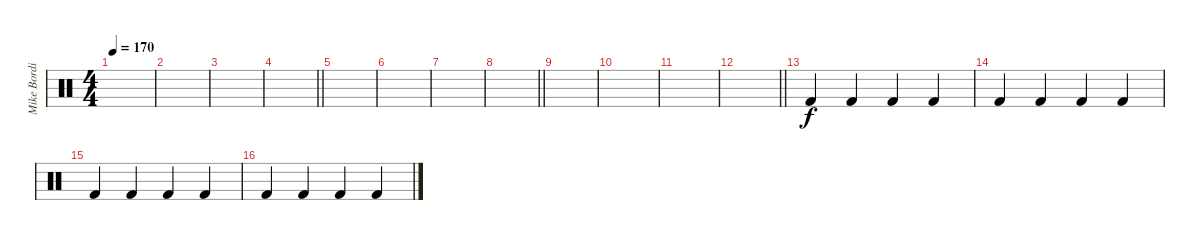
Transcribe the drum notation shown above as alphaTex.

\track ("Mike Bordin Backing" "Mike Bordi") {instrument percussion}
\staff {score}
\articulation defaults
\ts (4 4)
\tempo 170
\clef neutral
\ks c
|
|
|
\barLineRight lightlight
|
|
|
|
\barLineRight lightlight
|
|
|
|
\barLineRight lightlight
|
"Kick (hit) 2".4 "Kick (hit) 2".4 "Kick (hit) 2".4 "Kick (hit) 2".4 |
"Kick (hit) 2".4 "Kick (hit) 2".4 "Kick (hit) 2".4 "Kick (hit) 2".4 |
"Kick (hit) 2".4 "Kick (hit) 2".4 "Kick (hit) 2".4 "Kick (hit) 2".4 |
"Kick (hit) 2".4 "Kick (hit) 2".4 "Kick (hit) 2".4 "Kick (hit) 2".4
